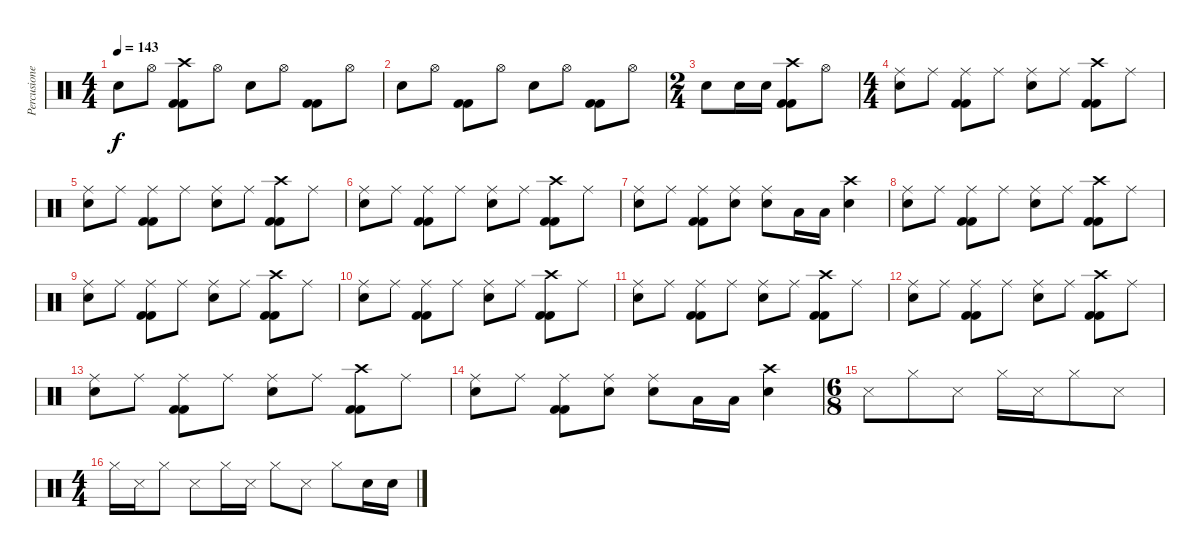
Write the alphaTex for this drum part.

\track ("Percusiones" "Percusione") {instrument percussion}
\staff {score}
\articulation defaults
\ts (4 4)
\tempo 143
\clef neutral
\ks c "Snare (hit) 2".8{dy f} "Hi-Hat (open)".8
("Kick (hit) 2" "Kick (hit) 2" "Crash high (hit)").8 "Hi-Hat (open)".8 "Snare (hit) 2".8 "Hi-Hat (open)".8 ("Kick (hit) 2" "Kick (hit) 2").8 "Hi-Hat (open)".8 |
"Snare (hit) 2".8 "Hi-Hat (open)".8 ("Kick (hit) 2" "Kick (hit) 2").8 "Hi-Hat (open)".8 "Snare (hit) 2".8 "Hi-Hat (open)".8 ("Kick (hit) 2" "Kick (hit) 2").8 "Hi-Hat (open)".8 |
\ts (2 4)
"Snare (hit) 2".8 "Snare (hit) 2".16 "Snare (hit) 2".16 ("Crash high (hit)" "Kick (hit) 2" "Kick (hit) 2").8 "Hi-Hat (open)".8 |
\ts (4 4)
("Ride (middle)" "Snare (hit) 2").8 "Ride (middle)".8 ("Ride (middle)" "Kick (hit) 2" "Kick (hit) 2").8 "Ride (middle)".8 ("Ride (middle)" "Snare (hit) 2").8 "Ride (middle)".8 ("Kick (hit) 2" "Kick (hit) 2" "Crash high (hit)").8 "Ride (middle)".8 |
("Ride (middle)" "Snare (hit) 2").8 "Ride (middle)".8 ("Ride (middle)" "Kick (hit) 2" "Kick (hit) 2").8 "Ride (middle)".8 ("Ride (middle)" "Snare (hit) 2").8 "Ride (middle)".8 ("Kick (hit) 2" "Kick (hit) 2" "Crash high (hit)").8 "Ride (middle)".8 |
("Ride (middle)" "Snare (hit) 2").8 "Ride (middle)".8 ("Ride (middle)" "Kick (hit) 2" "Kick (hit) 2").8 "Ride (middle)".8 ("Ride (middle)" "Snare (hit) 2").8 "Ride (middle)".8 ("Kick (hit) 2" "Kick (hit) 2" "Crash high (hit)").8 "Ride (middle)".8 |
("Ride (middle)" "Snare (hit) 2").8 "Ride (middle)".8 ("Ride (middle)" "Kick (hit) 2" "Kick (hit) 2").8 ("Ride (middle)" "Snare (hit) 2").8 ("Ride (middle)" "Snare (hit) 2").8 "Low Tom (hit)".16 "Low Tom (hit)".16 ("Snare (hit) 2" "Crash high (hit)").4 |
("Ride (middle)" "Snare (hit) 2").8 "Ride (middle)".8 ("Ride (middle)" "Kick (hit) 2" "Kick (hit) 2").8 "Ride (middle)".8 ("Ride (middle)" "Snare (hit) 2").8 "Ride (middle)".8 ("Kick (hit) 2" "Kick (hit) 2" "Crash high (hit)").8 "Ride (middle)".8 |
("Ride (middle)" "Snare (hit) 2").8 "Ride (middle)".8 ("Ride (middle)" "Kick (hit) 2" "Kick (hit) 2").8 "Ride (middle)".8 ("Ride (middle)" "Snare (hit) 2").8 "Ride (middle)".8 ("Kick (hit) 2" "Kick (hit) 2" "Crash high (hit)").8 "Ride (middle)".8 |
("Ride (middle)" "Snare (hit) 2").8 "Ride (middle)".8 ("Ride (middle)" "Kick (hit) 2" "Kick (hit) 2").8 "Ride (middle)".8 ("Ride (middle)" "Snare (hit) 2").8 "Ride (middle)".8 ("Kick (hit) 2" "Kick (hit) 2" "Crash high (hit)").8 "Ride (middle)".8 |
("Ride (middle)" "Snare (hit) 2").8 "Ride (middle)".8 ("Ride (middle)" "Kick (hit) 2" "Kick (hit) 2").8 "Ride (middle)".8 ("Ride (middle)" "Snare (hit) 2").8 "Ride (middle)".8 ("Kick (hit) 2" "Kick (hit) 2" "Crash high (hit)").8 "Ride (middle)".8 |
("Ride (middle)" "Snare (hit) 2").8 "Ride (middle)".8 ("Ride (middle)" "Kick (hit) 2" "Kick (hit) 2").8 "Ride (middle)".8 ("Ride (middle)" "Snare (hit) 2").8 "Ride (middle)".8 ("Kick (hit) 2" "Kick (hit) 2" "Crash high (hit)").8 "Ride (middle)".8 |
("Ride (middle)" "Snare (hit) 2").8 "Ride (middle)".8 ("Ride (middle)" "Kick (hit) 2" "Kick (hit) 2").8 "Ride (middle)".8 ("Ride (middle)" "Snare (hit) 2").8 "Ride (middle)".8 ("Kick (hit) 2" "Kick (hit) 2" "Crash high (hit)").8 "Ride (middle)".8 |
("Ride (middle)" "Snare (hit) 2").8 "Ride (middle)".8 ("Ride (middle)" "Kick (hit) 2" "Kick (hit) 2").8 ("Ride (middle)" "Snare (hit) 2").8 ("Ride (middle)" "Snare (hit) 2").8 "Low Tom (hit)".16 "Low Tom (hit)".16 ("Snare (hit) 2" "Crash high (hit)").4 |
\ts (6 8)
"Snare (side stick) 3".8 "Hi-Hat (closed)".8 "Snare (side stick) 3".8 "Hi-Hat (closed)".16 "Snare (side stick) 3".16 "Hi-Hat (closed)".8 "Snare (side stick) 3".8 |
\ts (4 4)
"Hi-Hat (closed)".16 "Snare (side stick) 3".16 "Hi-Hat (closed)".8 "Snare (side stick) 3".8 "Hi-Hat (closed)".16 "Snare (side stick) 3".16 "Hi-Hat (closed)".8 "Snare (side stick) 3".8 "Hi-Hat (closed)".8 "Snare (hit) 2".16 "Snare (hit) 2".16
